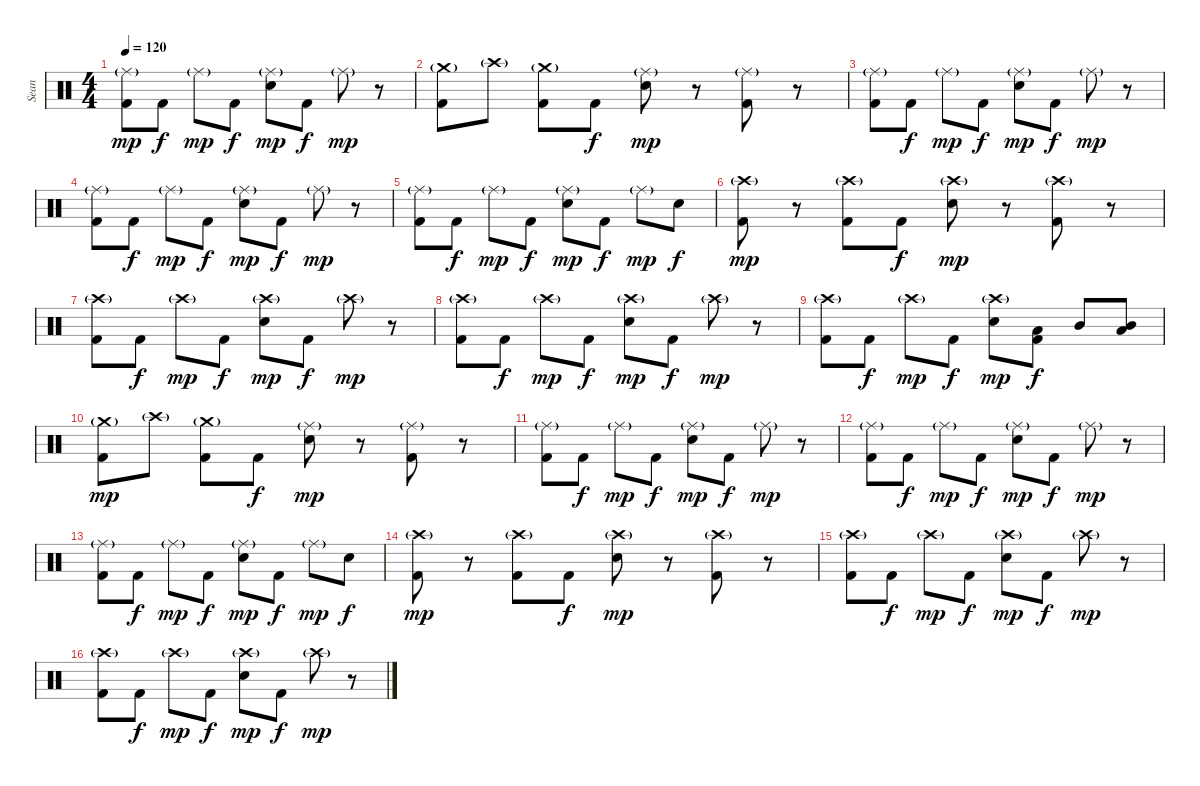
\track ("Sean" "Sean") {instrument percussion}
\staff {score}
\articulation defaults
\ts (4 4)
\tempo 120
\clef neutral
\ks c
("Ride (middle)"{g} "Kick (hit) 2").8{dy mp} "Kick (hit) 2".8{dy f} "Ride (middle)"{g}.8{dy mp} "Kick (hit) 2".8{dy f} ("Ride (middle)"{g} "Electric Snare (hit)").8{dy mp} "Kick (hit) 2".8{dy f} "Ride (middle)"{g}.8{dy mp} r.8 |
("Crash medium (hit)"{g} "Kick (hit) 2").8 "Crash high (hit)"{g}.8 ("Crash medium (hit)"{g} "Kick (hit) 2").8 "Kick (hit) 2".8{dy f} ("Ride (middle)"{g} "Electric Snare (hit)").8{dy mp} r.8 ("Ride (middle)"{g} "Kick (hit) 2").8 r.8 |
("Ride (middle)"{g} "Kick (hit) 2").8 "Kick (hit) 2".8{dy f} "Ride (middle)"{g}.8{dy mp} "Kick (hit) 2".8{dy f} ("Ride (middle)"{g} "Electric Snare (hit)").8{dy mp} "Kick (hit) 2".8{dy f} "Ride (middle)"{g}.8{dy mp} r.8 |
("Ride (middle)"{g} "Kick (hit) 2").8 "Kick (hit) 2".8{dy f} "Ride (middle)"{g}.8{dy mp} "Kick (hit) 2".8{dy f} ("Ride (middle)"{g} "Electric Snare (hit)").8{dy mp} "Kick (hit) 2".8{dy f} "Ride (middle)"{g}.8{dy mp} r.8 |
("Ride (middle)"{g} "Kick (hit) 2").8 "Kick (hit) 2".8{dy f} "Ride (middle)"{g}.8{dy mp} "Kick (hit) 2".8{dy f} ("Ride (middle)"{g} "Electric Snare (hit)").8{dy mp} "Kick (hit) 2".8{dy f} "Ride (middle)"{g}.8{dy mp} "Electric Snare (hit)".8{dy f} |
("Crash high (hit)"{g} "Kick (hit) 2").8{dy mp} r.8 ("Crash high (hit)"{g} "Kick (hit) 2").8 "Kick (hit) 2".8{dy f} ("Crash high (hit)"{g} "Electric Snare (hit)").8{dy mp} r.8 ("Crash high (hit)"{g} "Kick (hit) 2").8 r.8 |
("Crash high (hit)"{g} "Kick (hit) 2").8 "Kick (hit) 2".8{dy f} "Crash high (hit)"{g}.8{dy mp} "Kick (hit) 2".8{dy f} ("Crash high (hit)"{g} "Electric Snare (hit)").8{dy mp} "Kick (hit) 2".8{dy f} "Crash high (hit)"{g}.8{dy mp} r.8 |
("Crash high (hit)"{g} "Kick (hit) 2").8 "Kick (hit) 2".8{dy f} "Crash high (hit)"{g}.8{dy mp} "Kick (hit) 2".8{dy f} ("Crash high (hit)"{g} "Electric Snare (hit)").8{dy mp} "Kick (hit) 2".8{dy f} "Crash high (hit)"{g}.8{dy mp} r.8 |
("Crash high (hit)"{g} "Kick (hit) 2").8 "Kick (hit) 2".8{dy f} "Crash high (hit)"{g}.8{dy mp} "Kick (hit) 2".8{dy f} ("Crash high (hit)"{g} "Electric Snare (hit)").8{dy mp} ("Low Tom (hit)" "Kick (hit) 2").8{dy f} "Mid Tom (hit)".8 ("Mid Tom (hit)" "Low Tom (hit)").8{bd 480} |
("Crash medium (hit)"{g} "Kick (hit) 2").8{dy mp} "Crash high (hit)"{g}.8 ("Crash medium (hit)"{g} "Kick (hit) 2").8 "Kick (hit) 2".8{dy f} ("Ride (middle)"{g} "Electric Snare (hit)").8{dy mp} r.8 ("Ride (middle)"{g} "Kick (hit) 2").8 r.8 |
("Ride (middle)"{g} "Kick (hit) 2").8 "Kick (hit) 2".8{dy f} "Ride (middle)"{g}.8{dy mp} "Kick (hit) 2".8{dy f} ("Ride (middle)"{g} "Electric Snare (hit)").8{dy mp} "Kick (hit) 2".8{dy f} "Ride (middle)"{g}.8{dy mp} r.8 |
("Ride (middle)"{g} "Kick (hit) 2").8 "Kick (hit) 2".8{dy f} "Ride (middle)"{g}.8{dy mp} "Kick (hit) 2".8{dy f} ("Ride (middle)"{g} "Electric Snare (hit)").8{dy mp} "Kick (hit) 2".8{dy f} "Ride (middle)"{g}.8{dy mp} r.8 |
("Ride (middle)"{g} "Kick (hit) 2").8 "Kick (hit) 2".8{dy f} "Ride (middle)"{g}.8{dy mp} "Kick (hit) 2".8{dy f} ("Ride (middle)"{g} "Electric Snare (hit)").8{dy mp} "Kick (hit) 2".8{dy f} "Ride (middle)"{g}.8{dy mp} "Electric Snare (hit)".8{dy f} |
("Crash high (hit)"{g} "Kick (hit) 2").8{dy mp} r.8 ("Crash high (hit)"{g} "Kick (hit) 2").8 "Kick (hit) 2".8{dy f} ("Crash high (hit)"{g} "Electric Snare (hit)").8{dy mp} r.8 ("Crash high (hit)"{g} "Kick (hit) 2").8 r.8 |
("Crash high (hit)"{g} "Kick (hit) 2").8 "Kick (hit) 2".8{dy f} "Crash high (hit)"{g}.8{dy mp} "Kick (hit) 2".8{dy f} ("Crash high (hit)"{g} "Electric Snare (hit)").8{dy mp} "Kick (hit) 2".8{dy f} "Crash high (hit)"{g}.8{dy mp} r.8 |
("Crash high (hit)"{g} "Kick (hit) 2").8 "Kick (hit) 2".8{dy f} "Crash high (hit)"{g}.8{dy mp} "Kick (hit) 2".8{dy f} ("Crash high (hit)"{g} "Electric Snare (hit)").8{dy mp} "Kick (hit) 2".8{dy f} "Crash high (hit)"{g}.8{dy mp} r.8
